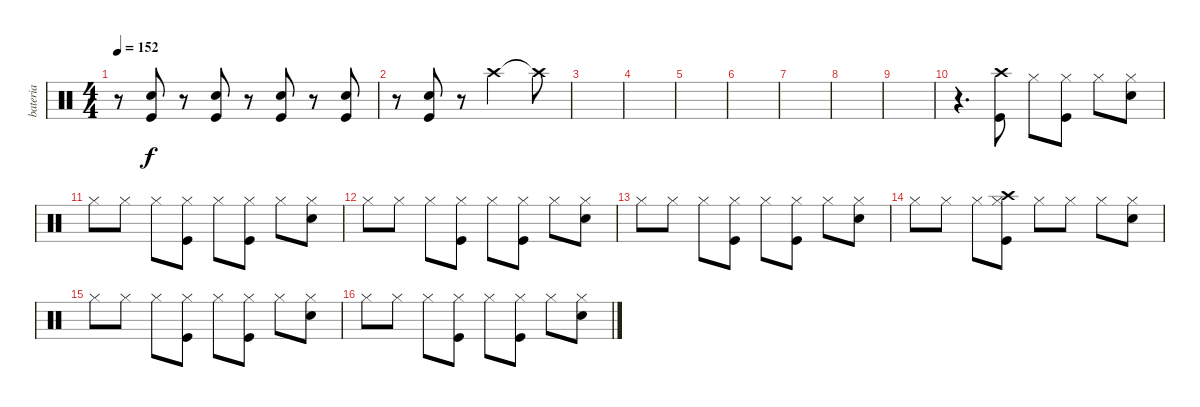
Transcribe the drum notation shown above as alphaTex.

\track ("bateria" "bateria") {instrument percussion}
\staff {score}
\articulation defaults
\ts (4 4)
\tempo 152
\clef neutral
\ks c
r.8{dy f} ("Electric Snare (hit)" "Kick (hit)").8 r.8 ("Kick (hit)" "Electric Snare (hit)").8 r.8 ("Kick (hit)" "Electric Snare (hit)").8 r.8 ("Kick (hit)" "Electric Snare (hit)").8 |
r.8 ("Kick (hit)" "Electric Snare (hit)").8 r.8 "Crash high (hit)".2 "Crash high (hit)"{t}.8 |
|
|
|
|
|
|
|
r.4{d} ("Crash high (hit)" "Kick (hit)").8 "Hi-Hat (closed)".8 ("Hi-Hat (closed)" "Kick (hit)").8 "Hi-Hat (closed)".8 ("Hi-Hat (closed)" "Electric Snare (hit)").8 |
"Hi-Hat (closed)".8 "Hi-Hat (closed)".8 "Hi-Hat (closed)".8 ("Hi-Hat (closed)" "Kick (hit)").8 "Hi-Hat (closed)".8 ("Hi-Hat (closed)" "Kick (hit)").8 "Hi-Hat (closed)".8 ("Hi-Hat (closed)" "Electric Snare (hit)").8 |
"Hi-Hat (closed)".8 "Hi-Hat (closed)".8 "Hi-Hat (closed)".8 ("Hi-Hat (closed)" "Kick (hit)").8 "Hi-Hat (closed)".8 ("Hi-Hat (closed)" "Kick (hit)").8 "Hi-Hat (closed)".8 ("Hi-Hat (closed)" "Electric Snare (hit)").8 |
"Hi-Hat (closed)".8 "Hi-Hat (closed)".8 "Hi-Hat (closed)".8 ("Hi-Hat (closed)" "Kick (hit)").8 "Hi-Hat (closed)".8 ("Hi-Hat (closed)" "Kick (hit)").8 "Hi-Hat (closed)".8 ("Hi-Hat (closed)" "Electric Snare (hit)").8 |
"Hi-Hat (closed)".8 "Hi-Hat (closed)".8 "Hi-Hat (closed)".8 ("Hi-Hat (closed)" "Kick (hit)" "Crash high (hit)").8 "Hi-Hat (closed)".8 "Hi-Hat (closed)".8 "Hi-Hat (closed)".8 ("Hi-Hat (closed)" "Electric Snare (hit)").8 |
"Hi-Hat (closed)".8 "Hi-Hat (closed)".8 "Hi-Hat (closed)".8 ("Hi-Hat (closed)" "Kick (hit)").8 "Hi-Hat (closed)".8 ("Hi-Hat (closed)" "Kick (hit)").8 "Hi-Hat (closed)".8 ("Hi-Hat (closed)" "Electric Snare (hit)").8 |
"Hi-Hat (closed)".8 "Hi-Hat (closed)".8 "Hi-Hat (closed)".8 ("Hi-Hat (closed)" "Kick (hit)").8 "Hi-Hat (closed)".8 ("Hi-Hat (closed)" "Kick (hit)").8 "Hi-Hat (closed)".8 ("Hi-Hat (closed)" "Electric Snare (hit)").8
